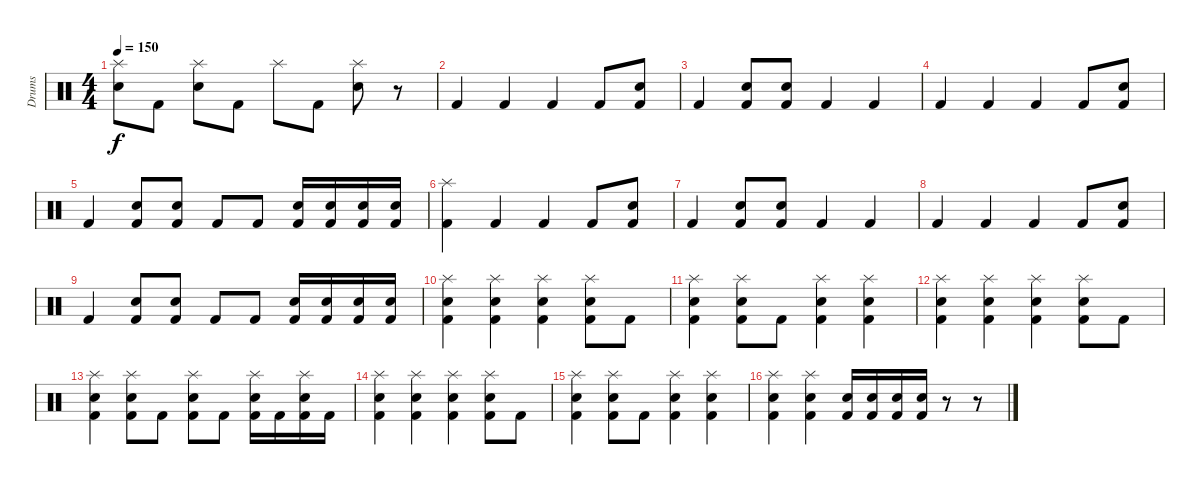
\track ("Drums" "Drums") {instrument percussion}
\staff {score}
\articulation defaults
\ts (4 4)
\tempo 150
\clef neutral
\ks c
("Splash (hit)" "Snare (hit) 2").8{dy f} "Kick (hit) 2".8 ("Splash (hit)" "Snare (hit) 2").8 "Kick (hit) 2".8 "Splash (hit)".8 "Kick (hit) 2".8 ("Splash (hit)" "Snare (hit) 2").8 r.8 |
"Kick (hit) 2".4 "Kick (hit) 2".4 "Kick (hit) 2".4 "Kick (hit) 2".8 ("Snare (hit) 2" "Kick (hit) 2").8 |
"Kick (hit) 2".4 ("Snare (hit) 2" "Kick (hit) 2").8 ("Snare (hit) 2" "Kick (hit) 2").8 "Kick (hit) 2".4 "Kick (hit) 2".4 |
"Kick (hit) 2".4 "Kick (hit) 2".4 "Kick (hit) 2".4 "Kick (hit) 2".8 ("Snare (hit) 2" "Kick (hit) 2").8 |
"Kick (hit) 2".4 ("Snare (hit) 2" "Kick (hit) 2").8 ("Snare (hit) 2" "Kick (hit) 2").8 "Kick (hit) 2".8 "Kick (hit) 2".8 ("Snare (hit) 2" "Kick (hit) 2").16 ("Snare (hit) 2" "Kick (hit) 2").16 ("Snare (hit) 2" "Kick (hit) 2").16 ("Snare (hit) 2" "Kick (hit) 2").16 |
("Splash (hit)" "Kick (hit) 2").4 "Kick (hit) 2".4 "Kick (hit) 2".4 "Kick (hit) 2".8 ("Snare (hit) 2" "Kick (hit) 2").8 |
"Kick (hit) 2".4 ("Snare (hit) 2" "Kick (hit) 2").8 ("Snare (hit) 2" "Kick (hit) 2").8 "Kick (hit) 2".4 "Kick (hit) 2".4 |
"Kick (hit) 2".4 "Kick (hit) 2".4 "Kick (hit) 2".4 "Kick (hit) 2".8 ("Snare (hit) 2" "Kick (hit) 2").8 |
"Kick (hit) 2".4 ("Snare (hit) 2" "Kick (hit) 2").8 ("Snare (hit) 2" "Kick (hit) 2").8 "Kick (hit) 2".8 "Kick (hit) 2".8 ("Snare (hit) 2" "Kick (hit) 2").16 ("Snare (hit) 2" "Kick (hit) 2").16 ("Snare (hit) 2" "Kick (hit) 2").16 ("Snare (hit) 2" "Kick (hit) 2").16 |
("Splash (hit)" "Snare (hit) 2" "Kick (hit) 2").4 ("Splash (hit)" "Snare (hit) 2" "Kick (hit) 2").4 ("Splash (hit)" "Snare (hit) 2" "Kick (hit) 2").4 ("Splash (hit)" "Snare (hit) 2" "Kick (hit) 2").8 "Kick (hit) 2".8 |
("Splash (hit)" "Snare (hit) 2" "Kick (hit) 2").4 ("Splash (hit)" "Snare (hit) 2" "Kick (hit) 2").8 "Kick (hit) 2".8 ("Splash (hit)" "Snare (hit) 2" "Kick (hit) 2").4 ("Splash (hit)" "Snare (hit) 2" "Kick (hit) 2").4 |
("Splash (hit)" "Snare (hit) 2" "Kick (hit) 2").4 ("Splash (hit)" "Snare (hit) 2" "Kick (hit) 2").4 ("Splash (hit)" "Snare (hit) 2" "Kick (hit) 2").4 ("Splash (hit)" "Snare (hit) 2" "Kick (hit) 2").8 "Kick (hit) 2".8 |
("Splash (hit)" "Snare (hit) 2" "Kick (hit) 2").4 ("Splash (hit)" "Snare (hit) 2" "Kick (hit) 2").8 "Kick (hit) 2".8 ("Splash (hit)" "Snare (hit) 2" "Kick (hit) 2").8 "Kick (hit) 2".8 ("Splash (hit)" "Snare (hit) 2" "Kick (hit) 2").16 "Kick (hit) 2".16 ("Splash (hit)" "Snare (hit) 2" "Kick (hit) 2").16 "Kick (hit) 2".16 |
("Splash (hit)" "Snare (hit) 2" "Kick (hit) 2").4 ("Splash (hit)" "Snare (hit) 2" "Kick (hit) 2").4 ("Splash (hit)" "Snare (hit) 2" "Kick (hit) 2").4 ("Splash (hit)" "Snare (hit) 2" "Kick (hit) 2").8 "Kick (hit) 2".8 |
("Splash (hit)" "Snare (hit) 2" "Kick (hit) 2").4 ("Splash (hit)" "Snare (hit) 2" "Kick (hit) 2").8 "Kick (hit) 2".8 ("Splash (hit)" "Snare (hit) 2" "Kick (hit) 2").4 ("Splash (hit)" "Snare (hit) 2" "Kick (hit) 2").4 |
("Splash (hit)" "Snare (hit) 2" "Kick (hit) 2").4 ("Splash (hit)" "Snare (hit) 2" "Kick (hit) 2").4 ("Snare (hit) 2" "Kick (hit) 2").16 ("Snare (hit) 2" "Kick (hit) 2").16 ("Snare (hit) 2" "Kick (hit) 2").16 ("Snare (hit) 2" "Kick (hit) 2").16 r.8 r.8
